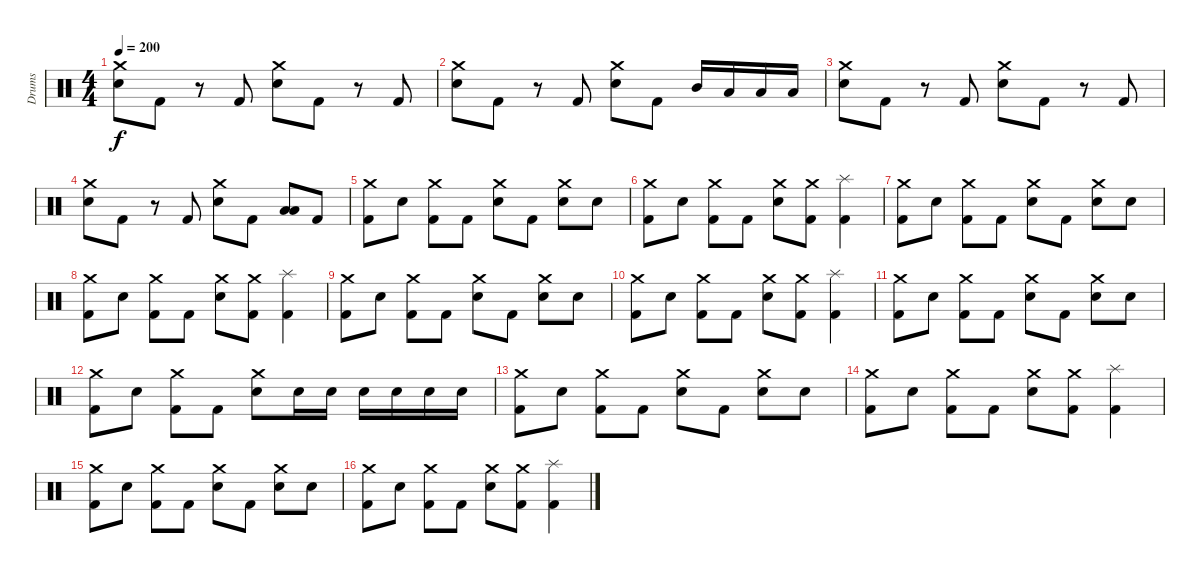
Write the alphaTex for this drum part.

\track ("Drums" "Drums") {instrument percussion}
\staff {score}
\articulation defaults
\ts (4 4)
\tempo 200
\clef neutral
\ks c
("Crash medium (hit)" "Electric Snare (hit)").8{dy f} "Kick (hit) 2".8 r.8 "Kick (hit) 2".8 ("Crash medium (hit)" "Electric Snare (hit)").8 "Kick (hit) 2".8 r.8 "Kick (hit) 2".8 |
("Crash medium (hit)" "Electric Snare (hit)").8 "Kick (hit) 2".8 r.8 "Kick (hit) 2".8 ("Crash medium (hit)" "Electric Snare (hit)").8 "Kick (hit) 2".8 "Mid Tom (hit)".16 "Low Tom (hit)".16 "Low Floor Tom (hit)".16 "Low Floor Tom (hit)".16 |
("Crash medium (hit)" "Electric Snare (hit)").8 "Kick (hit) 2".8 r.8 "Kick (hit) 2".8 ("Crash medium (hit)" "Electric Snare (hit)").8 "Kick (hit) 2".8 r.8 "Kick (hit) 2".8 |
("Crash medium (hit)" "Electric Snare (hit)").8 "Kick (hit) 2".8 r.8 "Kick (hit) 2".8 ("Crash medium (hit)" "Electric Snare (hit)").8 "Kick (hit) 2".8 ("Low Tom (hit)" "Low Floor Tom (hit)").8 "Kick (hit) 2".8 |
("Crash medium (hit)" "Kick (hit) 2").8 "Electric Snare (hit)".8 ("Crash medium (hit)" "Kick (hit) 2").8 "Kick (hit) 2".8 ("Crash medium (hit)" "Electric Snare (hit)").8 "Kick (hit) 2".8 ("Crash medium (hit)" "Electric Snare (hit)").8 "Electric Snare (hit)".8 |
("Crash medium (hit)" "Kick (hit) 2").8 "Electric Snare (hit)".8 ("Crash medium (hit)" "Kick (hit) 2").8 "Kick (hit) 2".8 ("Crash medium (hit)" "Electric Snare (hit)").8 ("Crash medium (hit)" "Kick (hit) 2").8 ("Splash (hit)" "Kick (hit) 2").4 |
("Crash medium (hit)" "Kick (hit) 2").8 "Electric Snare (hit)".8 ("Crash medium (hit)" "Kick (hit) 2").8 "Kick (hit) 2".8 ("Crash medium (hit)" "Electric Snare (hit)").8 "Kick (hit) 2".8 ("Crash medium (hit)" "Electric Snare (hit)").8 "Electric Snare (hit)".8 |
("Crash medium (hit)" "Kick (hit) 2").8 "Electric Snare (hit)".8 ("Crash medium (hit)" "Kick (hit) 2").8 "Kick (hit) 2".8 ("Crash medium (hit)" "Electric Snare (hit)").8 ("Crash medium (hit)" "Kick (hit) 2").8 ("Splash (hit)" "Kick (hit) 2").4 |
("Crash medium (hit)" "Kick (hit) 2").8 "Electric Snare (hit)".8 ("Crash medium (hit)" "Kick (hit) 2").8 "Kick (hit) 2".8 ("Crash medium (hit)" "Electric Snare (hit)").8 "Kick (hit) 2".8 ("Crash medium (hit)" "Electric Snare (hit)").8 "Electric Snare (hit)".8 |
("Crash medium (hit)" "Kick (hit) 2").8 "Electric Snare (hit)".8 ("Crash medium (hit)" "Kick (hit) 2").8 "Kick (hit) 2".8 ("Crash medium (hit)" "Electric Snare (hit)").8 ("Crash medium (hit)" "Kick (hit) 2").8 ("Splash (hit)" "Kick (hit) 2").4 |
("Crash medium (hit)" "Kick (hit) 2").8 "Electric Snare (hit)".8 ("Crash medium (hit)" "Kick (hit) 2").8 "Kick (hit) 2".8 ("Crash medium (hit)" "Electric Snare (hit)").8 "Kick (hit) 2".8 ("Crash medium (hit)" "Electric Snare (hit)").8 "Electric Snare (hit)".8 |
("Crash medium (hit)" "Kick (hit) 2").8 "Electric Snare (hit)".8 ("Crash medium (hit)" "Kick (hit) 2").8 "Kick (hit) 2".8 ("Crash medium (hit)" "Electric Snare (hit)").8 "Electric Snare (hit)".16 "Electric Snare (hit)".16 "Electric Snare (hit)".16 "Electric Snare (hit)".16 "Electric Snare (hit)".16 "Electric Snare (hit)".16 |
("Crash medium (hit)" "Kick (hit) 2").8 "Electric Snare (hit)".8 ("Crash medium (hit)" "Kick (hit) 2").8 "Kick (hit) 2".8 ("Crash medium (hit)" "Electric Snare (hit)").8 "Kick (hit) 2".8 ("Crash medium (hit)" "Electric Snare (hit)").8 "Electric Snare (hit)".8 |
("Crash medium (hit)" "Kick (hit) 2").8 "Electric Snare (hit)".8 ("Crash medium (hit)" "Kick (hit) 2").8 "Kick (hit) 2".8 ("Crash medium (hit)" "Electric Snare (hit)").8 ("Crash medium (hit)" "Kick (hit) 2").8 ("Splash (hit)" "Kick (hit) 2").4 |
("Crash medium (hit)" "Kick (hit) 2").8 "Electric Snare (hit)".8 ("Crash medium (hit)" "Kick (hit) 2").8 "Kick (hit) 2".8 ("Crash medium (hit)" "Electric Snare (hit)").8 "Kick (hit) 2".8 ("Crash medium (hit)" "Electric Snare (hit)").8 "Electric Snare (hit)".8 |
("Crash medium (hit)" "Kick (hit) 2").8 "Electric Snare (hit)".8 ("Crash medium (hit)" "Kick (hit) 2").8 "Kick (hit) 2".8 ("Crash medium (hit)" "Electric Snare (hit)").8 ("Crash medium (hit)" "Kick (hit) 2").8 ("Splash (hit)" "Kick (hit) 2").4
